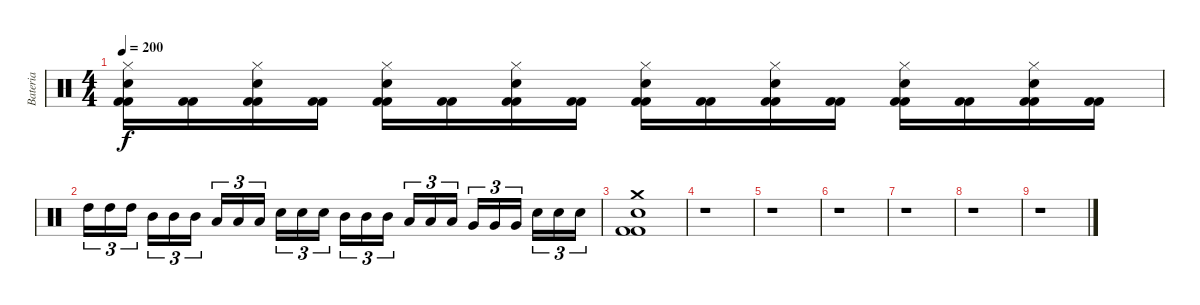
\track ("Bateria" "Bateria") {instrument percussion}
\staff {score}
\articulation defaults
\ts (4 4)
\tempo 200
\clef neutral
\ks c
("Kick (hit) 2" "Kick (hit) 2" "Snare (hit) 2" "Hi-Hat (closed)").16{dy f} ("Kick (hit) 2" "Kick (hit) 2").16 ("Kick (hit) 2" "Kick (hit) 2" "Snare (hit) 2" "Hi-Hat (closed)").16 ("Kick (hit) 2" "Kick (hit) 2").16 ("Kick (hit) 2" "Kick (hit) 2" "Snare (hit) 2" "Hi-Hat (closed)").16 ("Kick (hit) 2" "Kick (hit) 2").16 ("Kick (hit) 2" "Kick (hit) 2" "Snare (hit) 2" "Hi-Hat (closed)").16 ("Kick (hit) 2" "Kick (hit) 2").16 ("Kick (hit) 2" "Kick (hit) 2" "Snare (hit) 2" "Hi-Hat (closed)").16 ("Kick (hit) 2" "Kick (hit) 2").16 ("Kick (hit) 2" "Kick (hit) 2" "Snare (hit) 2" "Hi-Hat (closed)").16 ("Kick (hit) 2" "Kick (hit) 2").16 ("Kick (hit) 2" "Kick (hit) 2" "Snare (hit) 2" "Hi-Hat (closed)").16 ("Kick (hit) 2" "Kick (hit) 2").16 ("Kick (hit) 2" "Kick (hit) 2" "Snare (hit) 2" "Hi-Hat (closed)").16 ("Kick (hit) 2" "Kick (hit) 2").16 |
"High Tom (hit)".16{tu (3 2)} "High Tom (hit)".16{tu (3 2)} "High Tom (hit)".16{tu (3 2)} "Mid Tom (hit)".16{tu (3 2)} "Mid Tom (hit)".16{tu (3 2)} "Mid Tom (hit)".16{tu (3 2)} "Low Tom (hit)".16{tu (3 2)} "Low Tom (hit)".16{tu (3 2)} "Low Tom (hit)".16{tu (3 2)} "Snare (hit) 2".16{tu (3 2)} "Snare (hit) 2".16{tu (3 2)} "Snare (hit) 2".16{tu (3 2)} "Mid Tom (hit)".16{tu (3 2)} "Mid Tom (hit)".16{tu (3 2)} "Mid Tom (hit)".16{tu (3 2)} "Low Tom (hit)".16{tu (3 2)} "Low Tom (hit)".16{tu (3 2)} "Low Tom (hit)".16{tu (3 2)} "Very Low Tom (hit)".16{tu (3 2)} "Very Low Tom (hit)".16{tu (3 2)} "Very Low Tom (hit)".16{tu (3 2)} "Snare (hit) 2".16{tu (3 2)} "Snare (hit) 2".16{tu (3 2)} "Snare (hit) 2".16{tu (3 2)} |
("Kick (hit) 2" "Kick (hit) 2" "Snare (hit) 2" "Crash medium (hit)").1 |
r.1 |
r.1 |
r.1 |
r.1 |
r.1 |
r.1
